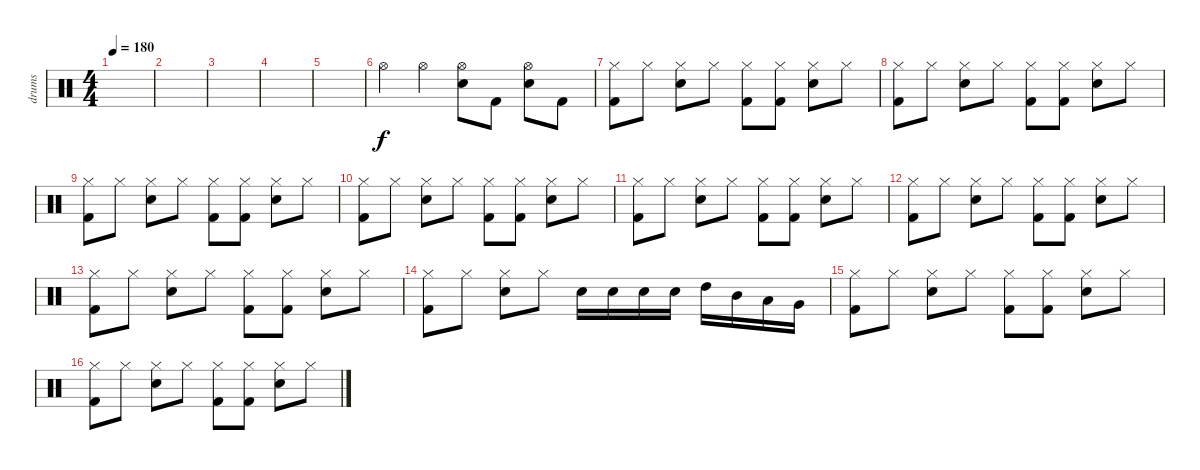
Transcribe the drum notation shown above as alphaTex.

\track ("drums" "drums") {instrument percussion}
\staff {score}
\articulation defaults
\ts (4 4)
\tempo 180
\clef neutral
\ks c
|
|
|
|
|
"Hi-Hat (open)".4 "Hi-Hat (open)".4 ("Hi-Hat (open)" "Snare (hit) 2").8 "Kick (hit) 2".8 ("Hi-Hat (open)" "Snare (hit) 2").8 "Kick (hit) 2".8 |
("Hi-Hat (closed)" "Kick (hit) 2").8 "Hi-Hat (closed)".8 ("Hi-Hat (closed)" "Snare (hit) 2").8 "Hi-Hat (closed)".8 ("Hi-Hat (closed)" "Kick (hit) 2").8 ("Hi-Hat (closed)" "Kick (hit) 2").8 ("Hi-Hat (closed)" "Snare (hit) 2").8 "Hi-Hat (closed)".8 |
("Hi-Hat (closed)" "Kick (hit) 2").8 "Hi-Hat (closed)".8 ("Hi-Hat (closed)" "Snare (hit) 2").8 "Hi-Hat (closed)".8 ("Hi-Hat (closed)" "Kick (hit) 2").8 ("Hi-Hat (closed)" "Kick (hit) 2").8 ("Hi-Hat (closed)" "Snare (hit) 2").8 "Hi-Hat (closed)".8 |
("Hi-Hat (closed)" "Kick (hit) 2").8 "Hi-Hat (closed)".8 ("Hi-Hat (closed)" "Snare (hit) 2").8 "Hi-Hat (closed)".8 ("Hi-Hat (closed)" "Kick (hit) 2").8 ("Hi-Hat (closed)" "Kick (hit) 2").8 ("Hi-Hat (closed)" "Snare (hit) 2").8 "Hi-Hat (closed)".8 |
("Hi-Hat (closed)" "Kick (hit) 2").8 "Hi-Hat (closed)".8 ("Hi-Hat (closed)" "Snare (hit) 2").8 "Hi-Hat (closed)".8 ("Hi-Hat (closed)" "Kick (hit) 2").8 ("Hi-Hat (closed)" "Kick (hit) 2").8 ("Hi-Hat (closed)" "Snare (hit) 2").8 "Hi-Hat (closed)".8 |
("Hi-Hat (closed)" "Kick (hit) 2").8 "Hi-Hat (closed)".8 ("Hi-Hat (closed)" "Snare (hit) 2").8 "Hi-Hat (closed)".8 ("Hi-Hat (closed)" "Kick (hit) 2").8 ("Hi-Hat (closed)" "Kick (hit) 2").8 ("Hi-Hat (closed)" "Snare (hit) 2").8 "Hi-Hat (closed)".8 |
("Hi-Hat (closed)" "Kick (hit) 2").8 "Hi-Hat (closed)".8 ("Hi-Hat (closed)" "Snare (hit) 2").8 "Hi-Hat (closed)".8 ("Hi-Hat (closed)" "Kick (hit) 2").8 ("Hi-Hat (closed)" "Kick (hit) 2").8 ("Hi-Hat (closed)" "Snare (hit) 2").8 "Hi-Hat (closed)".8 |
("Hi-Hat (closed)" "Kick (hit) 2").8 "Hi-Hat (closed)".8 ("Hi-Hat (closed)" "Snare (hit) 2").8 "Hi-Hat (closed)".8 ("Hi-Hat (closed)" "Kick (hit) 2").8 ("Hi-Hat (closed)" "Kick (hit) 2").8 ("Hi-Hat (closed)" "Snare (hit) 2").8 "Hi-Hat (closed)".8 |
("Hi-Hat (closed)" "Kick (hit) 2").8 "Hi-Hat (closed)".8 ("Hi-Hat (closed)" "Snare (hit) 2").8 "Hi-Hat (closed)".8 "Snare (hit) 2".16 "Snare (hit) 2".16 "Snare (hit) 2".16 "Snare (hit) 2".16 "High Tom (hit)".16 "Mid Tom (hit)".16 "Low Tom (hit)".16 "Very Low Tom (hit)".16 |
("Hi-Hat (closed)" "Kick (hit) 2").8 "Hi-Hat (closed)".8 ("Hi-Hat (closed)" "Snare (hit) 2").8 "Hi-Hat (closed)".8 ("Hi-Hat (closed)" "Kick (hit) 2").8 ("Hi-Hat (closed)" "Kick (hit) 2").8 ("Hi-Hat (closed)" "Snare (hit) 2").8 "Hi-Hat (closed)".8 |
("Hi-Hat (closed)" "Kick (hit) 2").8 "Hi-Hat (closed)".8 ("Hi-Hat (closed)" "Snare (hit) 2").8 "Hi-Hat (closed)".8 ("Hi-Hat (closed)" "Kick (hit) 2").8 ("Hi-Hat (closed)" "Kick (hit) 2").8 ("Hi-Hat (closed)" "Snare (hit) 2").8 "Hi-Hat (closed)".8
